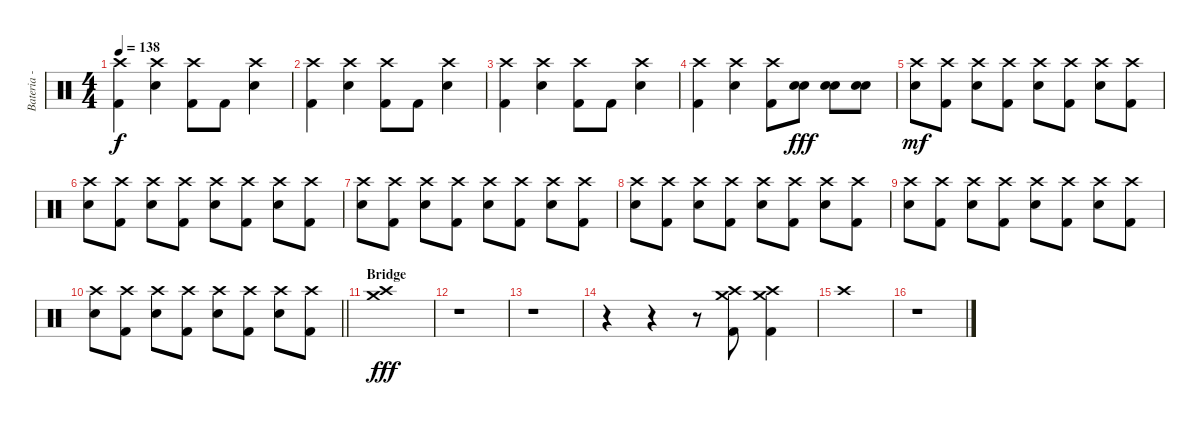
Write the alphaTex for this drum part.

\track ("Bateria - Larzon" "Bateria - ") {instrument percussion}
\staff {score}
\articulation defaults
\ts (4 4)
\tempo 138
\clef neutral
\ks c
("Kick (hit) 2" "Crash high (hit)").4{dy f} ("Electric Snare (hit)" "Crash high (hit)").4 ("Kick (hit) 2" "Crash high (hit)").8 "Kick (hit) 2".8 ("Electric Snare (hit)" "Crash high (hit)").4 |
("Kick (hit) 2" "Crash high (hit)").4 ("Electric Snare (hit)" "Crash high (hit)").4 ("Kick (hit) 2" "Crash high (hit)").8 "Kick (hit) 2".8 ("Electric Snare (hit)" "Crash high (hit)").4 |
("Kick (hit) 2" "Crash high (hit)").4 ("Electric Snare (hit)" "Crash high (hit)").4 ("Kick (hit) 2" "Crash high (hit)").8 "Kick (hit) 2".8 ("Electric Snare (hit)" "Crash high (hit)").4 |
("Kick (hit) 2" "Crash high (hit)").4 ("Electric Snare (hit)" "Crash high (hit)").4 ("Kick (hit) 2" "Crash high (hit)").8 ("Electric Snare (hit)" "Electric Snare (hit)").8{dy fff} ("Electric Snare (hit)" "Electric Snare (hit)").8 ("Electric Snare (hit)" "Electric Snare (hit)").8 |
("Electric Snare (hit)" "Crash high (hit)").8{dy mf} ("Kick (hit) 2" "Crash high (hit)").8 ("Electric Snare (hit)" "Crash high (hit)").8 ("Kick (hit) 2" "Crash high (hit)").8 ("Electric Snare (hit)" "Crash high (hit)").8 ("Kick (hit) 2" "Crash high (hit)").8 ("Electric Snare (hit)" "Crash high (hit)").8 ("Kick (hit) 2" "Crash high (hit)").8 |
("Electric Snare (hit)" "Crash high (hit)").8 ("Kick (hit) 2" "Crash high (hit)").8 ("Electric Snare (hit)" "Crash high (hit)").8 ("Kick (hit) 2" "Crash high (hit)").8 ("Electric Snare (hit)" "Crash high (hit)").8 ("Kick (hit) 2" "Crash high (hit)").8 ("Electric Snare (hit)" "Crash high (hit)").8 ("Kick (hit) 2" "Crash high (hit)").8 |
("Electric Snare (hit)" "Crash high (hit)").8 ("Kick (hit) 2" "Crash high (hit)").8 ("Electric Snare (hit)" "Crash high (hit)").8 ("Kick (hit) 2" "Crash high (hit)").8 ("Electric Snare (hit)" "Crash high (hit)").8 ("Kick (hit) 2" "Crash high (hit)").8 ("Electric Snare (hit)" "Crash high (hit)").8 ("Kick (hit) 2" "Crash high (hit)").8 |
("Electric Snare (hit)" "Crash high (hit)").8 ("Kick (hit) 2" "Crash high (hit)").8 ("Electric Snare (hit)" "Crash high (hit)").8 ("Kick (hit) 2" "Crash high (hit)").8 ("Electric Snare (hit)" "Crash high (hit)").8 ("Kick (hit) 2" "Crash high (hit)").8 ("Electric Snare (hit)" "Crash high (hit)").8 ("Kick (hit) 2" "Crash high (hit)").8 |
("Electric Snare (hit)" "Crash high (hit)").8 ("Kick (hit) 2" "Crash high (hit)").8 ("Electric Snare (hit)" "Crash high (hit)").8 ("Kick (hit) 2" "Crash high (hit)").8 ("Electric Snare (hit)" "Crash high (hit)").8 ("Kick (hit) 2" "Crash high (hit)").8 ("Electric Snare (hit)" "Crash high (hit)").8 ("Kick (hit) 2" "Crash high (hit)").8 |
\barLineRight lightlight
("Electric Snare (hit)" "Crash high (hit)").8 ("Kick (hit) 2" "Crash high (hit)").8 ("Electric Snare (hit)" "Crash high (hit)").8 ("Kick (hit) 2" "Crash high (hit)").8 ("Electric Snare (hit)" "Crash high (hit)").8 ("Kick (hit) 2" "Crash high (hit)").8 ("Electric Snare (hit)" "Crash high (hit)").8 ("Kick (hit) 2" "Crash high (hit)").8 |
\section ("" "Bridge")
("Crash high (hit)" "Crash medium (hit)").1{dy fff} |
r.1 |
r.1 |
r.4 r.4 r.8 ("Crash medium (hit)" "Crash high (hit)" "Kick (hit) 2").8 ("Crash medium (hit)" "Crash high (hit)" "Kick (hit) 2").4 |
"Crash high (hit)".1 |
r.1
